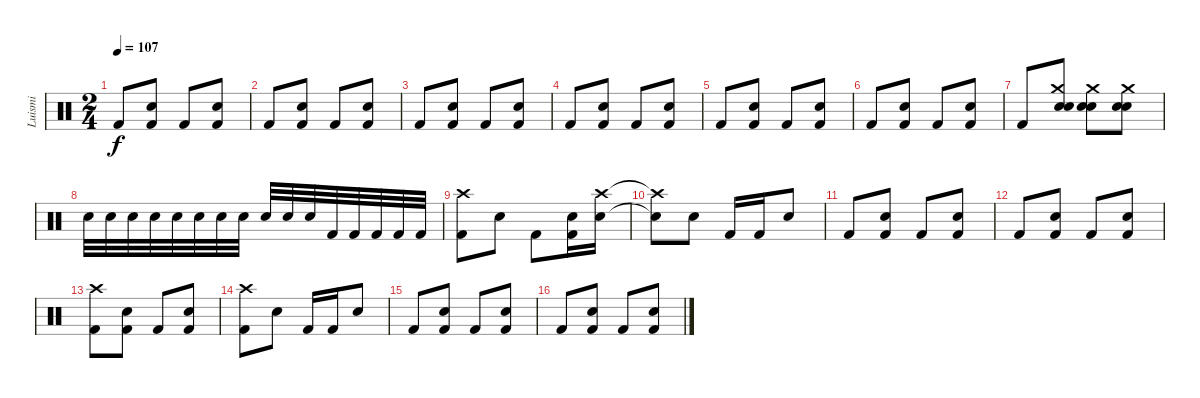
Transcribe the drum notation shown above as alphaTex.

\track ("Luismi" "Luismi") {instrument percussion}
\staff {score}
\articulation defaults
\ts (2 4)
\tempo 107
\clef neutral
\ks c "Kick (hit) 2".8{dy f}
("Snare (hit) 2" "Kick (hit) 2").8 "Kick (hit) 2".8 ("Snare (hit) 2" "Kick (hit) 2").8 |
"Kick (hit) 2".8 ("Snare (hit) 2" "Kick (hit) 2").8 "Kick (hit) 2".8 ("Snare (hit) 2" "Kick (hit) 2").8 |
"Kick (hit) 2".8 ("Snare (hit) 2" "Kick (hit) 2").8 "Kick (hit) 2".8 ("Snare (hit) 2" "Kick (hit) 2").8 |
"Kick (hit) 2".8 ("Snare (hit) 2" "Kick (hit) 2").8 "Kick (hit) 2".8 ("Snare (hit) 2" "Kick (hit) 2").8 |
"Kick (hit) 2".8 ("Snare (hit) 2" "Kick (hit) 2").8 "Kick (hit) 2".8 ("Snare (hit) 2" "Kick (hit) 2").8 |
"Kick (hit) 2".8 ("Snare (hit) 2" "Kick (hit) 2").8 "Kick (hit) 2".8 ("Snare (hit) 2" "Kick (hit) 2").8 |
"Kick (hit) 2".8 ("Crash medium (hit)" "Snare (hit) 2" "Electric Snare (hit)").8 ("Crash medium (hit)" "Snare (hit) 2" "Electric Snare (hit)").8 ("Crash medium (hit)" "Snare (hit) 2" "Electric Snare (hit)").8 |
"Electric Snare (hit)".32 "Electric Snare (hit)".32 "Electric Snare (hit)".32 "Electric Snare (hit)".32 "Electric Snare (hit)".32 "Electric Snare (hit)".32 "Snare (hit) 2".32 "Snare (hit) 2".32 "Snare (hit) 2".32 "Snare (hit) 2".32 "Snare (hit) 2".32 "Kick (hit) 2".32 "Kick (hit) 2".32 "Kick (hit) 2".32 "Kick (hit) 2".32 "Kick (hit) 2".32 |
("Crash high (hit)" "Kick (hit) 2").8 "Snare (hit) 2".8 "Kick (hit) 2".8 ("Snare (hit) 2" "Kick (hit) 2").16 ("Crash high (hit)" "Snare (hit) 2").16 |
("Crash high (hit)"{t} "Snare (hit)"{t}).8 "Snare (hit) 2".8 "Kick (hit) 2".16 "Kick (hit) 2".16 "Snare (hit) 2".8 |
"Kick (hit) 2".8 ("Snare (hit) 2" "Kick (hit) 2").8 "Kick (hit) 2".8 ("Snare (hit) 2" "Kick (hit) 2").8 |
"Kick (hit) 2".8 ("Snare (hit) 2" "Kick (hit) 2").8 "Kick (hit) 2".8 ("Snare (hit) 2" "Kick (hit) 2").8 |
("Crash high (hit)" "Kick (hit) 2").8 ("Snare (hit) 2" "Kick (hit) 2").8 "Kick (hit) 2".8 ("Snare (hit) 2" "Kick (hit) 2").8 |
("Crash high (hit)" "Kick (hit) 2").8 "Snare (hit) 2".8 "Kick (hit) 2".16 "Kick (hit) 2".16 "Snare (hit) 2".8 |
"Kick (hit) 2".8 ("Snare (hit) 2" "Kick (hit) 2").8 "Kick (hit) 2".8 ("Snare (hit) 2" "Kick (hit) 2").8 |
"Kick (hit) 2".8 ("Snare (hit) 2" "Kick (hit) 2").8 "Kick (hit) 2".8 ("Snare (hit) 2" "Kick (hit) 2").8
